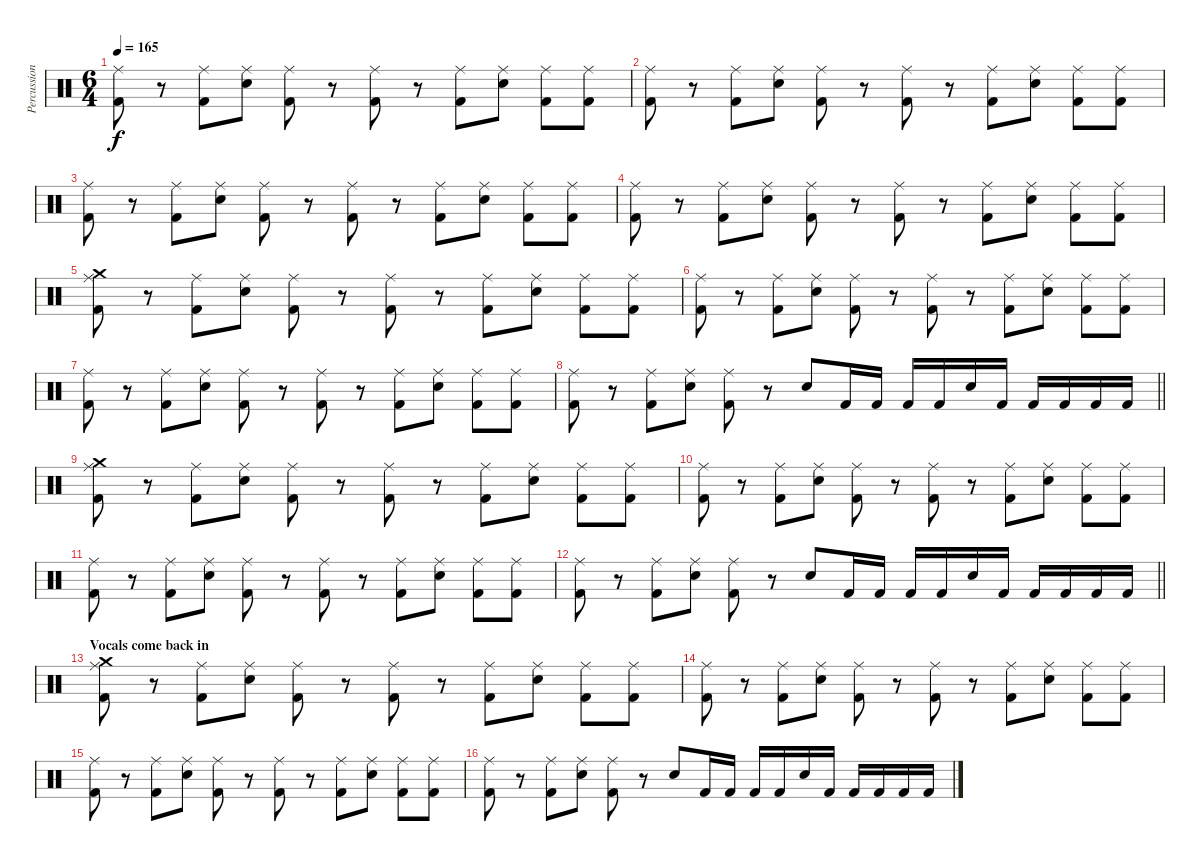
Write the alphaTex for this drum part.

\track ("Percussion" "Percussion") {instrument percussion}
\staff {score}
\articulation defaults
\ts (6 4)
\tempo 165
\clef neutral
\ks c
("Ride (middle)" "Kick (hit) 2").8{dy f} r.8 ("Ride (middle)" "Kick (hit) 2").8 ("Ride (middle)" "Electric Snare (hit)").8 ("Ride (middle)" "Kick (hit) 2").8 r.8 ("Ride (middle)" "Kick (hit) 2").8 r.8 ("Ride (middle)" "Kick (hit) 2").8 ("Ride (middle)" "Electric Snare (hit)").8 ("Ride (middle)" "Kick (hit) 2").8 ("Ride (middle)" "Kick (hit) 2").8 |
("Ride (middle)" "Kick (hit) 2").8 r.8 ("Ride (middle)" "Kick (hit) 2").8 ("Ride (middle)" "Electric Snare (hit)").8 ("Ride (middle)" "Kick (hit) 2").8 r.8 ("Ride (middle)" "Kick (hit) 2").8 r.8 ("Ride (middle)" "Kick (hit) 2").8 ("Ride (middle)" "Electric Snare (hit)").8 ("Ride (middle)" "Kick (hit) 2").8 ("Ride (middle)" "Kick (hit) 2").8 |
("Ride (middle)" "Kick (hit) 2").8 r.8 ("Ride (middle)" "Kick (hit) 2").8 ("Ride (middle)" "Electric Snare (hit)").8 ("Ride (middle)" "Kick (hit) 2").8 r.8 ("Ride (middle)" "Kick (hit) 2").8 r.8 ("Ride (middle)" "Kick (hit) 2").8 ("Ride (middle)" "Electric Snare (hit)").8 ("Ride (middle)" "Kick (hit) 2").8 ("Ride (middle)" "Kick (hit) 2").8 |
("Ride (middle)" "Kick (hit) 2").8 r.8 ("Ride (middle)" "Kick (hit) 2").8 ("Ride (middle)" "Electric Snare (hit)").8 ("Ride (middle)" "Kick (hit) 2").8 r.8 ("Ride (middle)" "Kick (hit) 2").8 r.8 ("Ride (middle)" "Kick (hit) 2").8 ("Ride (middle)" "Electric Snare (hit)").8 ("Ride (middle)" "Kick (hit) 2").8 ("Ride (middle)" "Kick (hit) 2").8 |
("Crash medium (hit)" "Ride (middle)" "Kick (hit) 2").8 r.8 ("Ride (middle)" "Kick (hit) 2").8 ("Ride (middle)" "Electric Snare (hit)").8 ("Ride (middle)" "Kick (hit) 2").8 r.8 ("Ride (middle)" "Kick (hit) 2").8 r.8 ("Ride (middle)" "Kick (hit) 2").8 ("Ride (middle)" "Electric Snare (hit)").8 ("Ride (middle)" "Kick (hit) 2").8 ("Ride (middle)" "Kick (hit) 2").8 |
("Ride (middle)" "Kick (hit) 2").8 r.8 ("Ride (middle)" "Kick (hit) 2").8 ("Ride (middle)" "Electric Snare (hit)").8 ("Ride (middle)" "Kick (hit) 2").8 r.8 ("Ride (middle)" "Kick (hit) 2").8 r.8 ("Ride (middle)" "Kick (hit) 2").8 ("Ride (middle)" "Electric Snare (hit)").8 ("Ride (middle)" "Kick (hit) 2").8 ("Ride (middle)" "Kick (hit) 2").8 |
("Ride (middle)" "Kick (hit) 2").8 r.8 ("Ride (middle)" "Kick (hit) 2").8 ("Ride (middle)" "Electric Snare (hit)").8 ("Ride (middle)" "Kick (hit) 2").8 r.8 ("Ride (middle)" "Kick (hit) 2").8 r.8 ("Ride (middle)" "Kick (hit) 2").8 ("Ride (middle)" "Electric Snare (hit)").8 ("Ride (middle)" "Kick (hit) 2").8 ("Ride (middle)" "Kick (hit) 2").8 |
\barLineRight lightlight
("Ride (middle)" "Kick (hit) 2").8 r.8 ("Ride (middle)" "Kick (hit) 2").8 ("Ride (middle)" "Electric Snare (hit)").8 ("Ride (middle)" "Kick (hit) 2").8 r.8 "Electric Snare (hit)".8 "Kick (hit) 2".16 "Kick (hit) 2".16 "Kick (hit) 2".16 "Kick (hit) 2".16 "Electric Snare (hit)".16 "Kick (hit) 2".16 "Kick (hit) 2".16 "Kick (hit) 2".16 "Kick (hit) 2".16 "Kick (hit) 2".16 |
\section ("" "")
("Crash medium (hit)" "Ride (middle)" "Kick (hit) 2").8 r.8 ("Ride (middle)" "Kick (hit) 2").8 ("Ride (middle)" "Electric Snare (hit)").8 ("Ride (middle)" "Kick (hit) 2").8 r.8 ("Ride (middle)" "Kick (hit) 2").8 r.8 ("Ride (middle)" "Kick (hit) 2").8 ("Ride (middle)" "Electric Snare (hit)").8 ("Ride (middle)" "Kick (hit) 2").8 ("Ride (middle)" "Kick (hit) 2").8 |
("Ride (middle)" "Kick (hit) 2").8 r.8 ("Ride (middle)" "Kick (hit) 2").8 ("Ride (middle)" "Electric Snare (hit)").8 ("Ride (middle)" "Kick (hit) 2").8 r.8 ("Ride (middle)" "Kick (hit) 2").8 r.8 ("Ride (middle)" "Kick (hit) 2").8 ("Ride (middle)" "Electric Snare (hit)").8 ("Ride (middle)" "Kick (hit) 2").8 ("Ride (middle)" "Kick (hit) 2").8 |
("Ride (middle)" "Kick (hit) 2").8 r.8 ("Ride (middle)" "Kick (hit) 2").8 ("Ride (middle)" "Electric Snare (hit)").8 ("Ride (middle)" "Kick (hit) 2").8 r.8 ("Ride (middle)" "Kick (hit) 2").8 r.8 ("Ride (middle)" "Kick (hit) 2").8 ("Ride (middle)" "Electric Snare (hit)").8 ("Ride (middle)" "Kick (hit) 2").8 ("Ride (middle)" "Kick (hit) 2").8 |
\barLineRight lightlight
("Ride (middle)" "Kick (hit) 2").8 r.8 ("Ride (middle)" "Kick (hit) 2").8 ("Ride (middle)" "Electric Snare (hit)").8 ("Ride (middle)" "Kick (hit) 2").8 r.8 "Electric Snare (hit)".8 "Kick (hit) 2".16 "Kick (hit) 2".16 "Kick (hit) 2".16 "Kick (hit) 2".16 "Electric Snare (hit)".16 "Kick (hit) 2".16 "Kick (hit) 2".16 "Kick (hit) 2".16 "Kick (hit) 2".16 "Kick (hit) 2".16 |
\section ("" "Vocals come back in")
("Crash medium (hit)" "Ride (middle)" "Kick (hit) 2").8 r.8 ("Ride (middle)" "Kick (hit) 2").8 ("Ride (middle)" "Electric Snare (hit)").8 ("Ride (middle)" "Kick (hit) 2").8 r.8 ("Ride (middle)" "Kick (hit) 2").8 r.8 ("Ride (middle)" "Kick (hit) 2").8 ("Ride (middle)" "Electric Snare (hit)").8 ("Ride (middle)" "Kick (hit) 2").8 ("Ride (middle)" "Kick (hit) 2").8 |
("Ride (middle)" "Kick (hit) 2").8 r.8 ("Ride (middle)" "Kick (hit) 2").8 ("Ride (middle)" "Electric Snare (hit)").8 ("Ride (middle)" "Kick (hit) 2").8 r.8 ("Ride (middle)" "Kick (hit) 2").8 r.8 ("Ride (middle)" "Kick (hit) 2").8 ("Ride (middle)" "Electric Snare (hit)").8 ("Ride (middle)" "Kick (hit) 2").8 ("Ride (middle)" "Kick (hit) 2").8 |
("Ride (middle)" "Kick (hit) 2").8 r.8 ("Ride (middle)" "Kick (hit) 2").8 ("Ride (middle)" "Electric Snare (hit)").8 ("Ride (middle)" "Kick (hit) 2").8 r.8 ("Ride (middle)" "Kick (hit) 2").8 r.8 ("Ride (middle)" "Kick (hit) 2").8 ("Ride (middle)" "Electric Snare (hit)").8 ("Ride (middle)" "Kick (hit) 2").8 ("Ride (middle)" "Kick (hit) 2").8 |
("Ride (middle)" "Kick (hit) 2").8 r.8 ("Ride (middle)" "Kick (hit) 2").8 ("Ride (middle)" "Electric Snare (hit)").8 ("Ride (middle)" "Kick (hit) 2").8 r.8 "Electric Snare (hit)".8 "Kick (hit) 2".16 "Kick (hit) 2".16 "Kick (hit) 2".16 "Kick (hit) 2".16 "Electric Snare (hit)".16 "Kick (hit) 2".16 "Kick (hit) 2".16 "Kick (hit) 2".16 "Kick (hit) 2".16 "Kick (hit) 2".16
